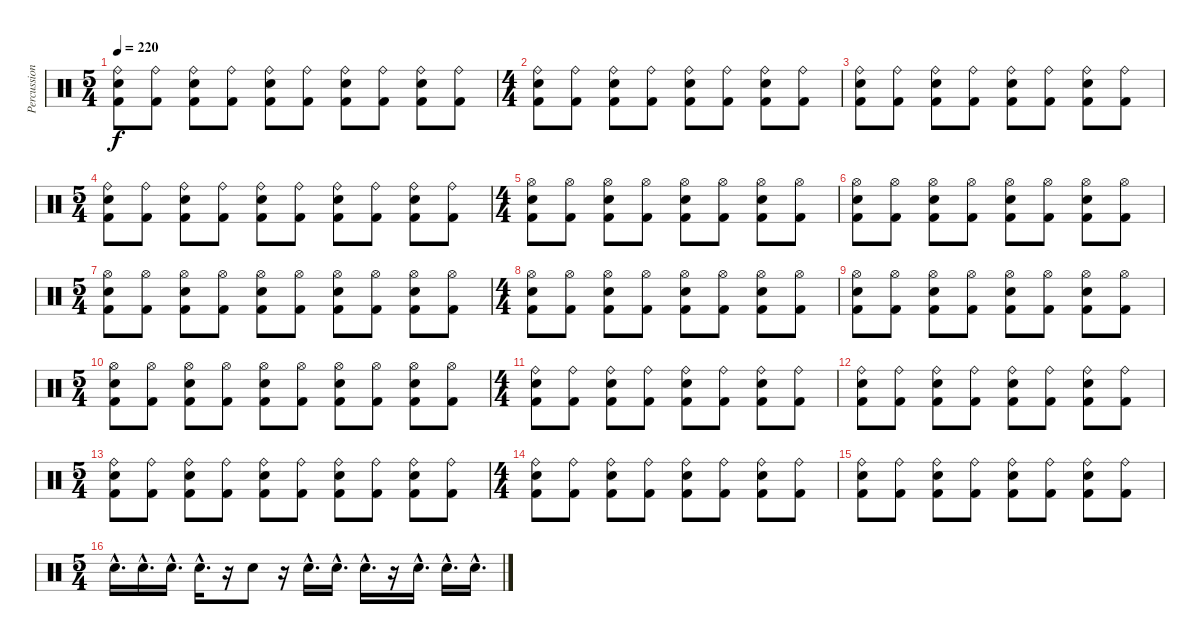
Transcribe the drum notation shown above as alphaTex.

\track ("Percussions" "Percussion") {instrument percussion}
\staff {score}
\articulation defaults
\ts (5 4)
\tempo 220
\clef neutral
\ks c
("Kick (hit) 2" "Snare (hit) 2" "Ride (bell)").8{dy f} ("Kick (hit) 2" "Ride (bell)").8 ("Kick (hit) 2" "Snare (hit) 2" "Ride (bell)").8 ("Kick (hit) 2" "Ride (bell)").8 ("Kick (hit) 2" "Snare (hit) 2" "Ride (bell)").8 ("Kick (hit) 2" "Ride (bell)").8 ("Kick (hit) 2" "Snare (hit) 2" "Ride (bell)").8 ("Kick (hit) 2" "Ride (bell)").8 ("Kick (hit) 2" "Snare (hit) 2" "Ride (bell)").8 ("Kick (hit) 2" "Ride (bell)").8 |
\ts (4 4)
("Kick (hit) 2" "Snare (hit) 2" "Ride (bell)").8 ("Kick (hit) 2" "Ride (bell)").8 ("Kick (hit) 2" "Snare (hit) 2" "Ride (bell)").8 ("Kick (hit) 2" "Ride (bell)").8 ("Kick (hit) 2" "Snare (hit) 2" "Ride (bell)").8 ("Kick (hit) 2" "Ride (bell)").8 ("Kick (hit) 2" "Snare (hit) 2" "Ride (bell)").8 ("Kick (hit) 2" "Ride (bell)").8 |
("Kick (hit) 2" "Snare (hit) 2" "Ride (bell)").8 ("Kick (hit) 2" "Ride (bell)").8 ("Kick (hit) 2" "Snare (hit) 2" "Ride (bell)").8 ("Kick (hit) 2" "Ride (bell)").8 ("Kick (hit) 2" "Snare (hit) 2" "Ride (bell)").8 ("Kick (hit) 2" "Ride (bell)").8 ("Kick (hit) 2" "Snare (hit) 2" "Ride (bell)").8 ("Kick (hit) 2" "Ride (bell)").8 |
\ts (5 4)
("Kick (hit) 2" "Snare (hit) 2" "Ride (bell)").8 ("Kick (hit) 2" "Ride (bell)").8 ("Kick (hit) 2" "Snare (hit) 2" "Ride (bell)").8 ("Kick (hit) 2" "Ride (bell)").8 ("Kick (hit) 2" "Snare (hit) 2" "Ride (bell)").8 ("Kick (hit) 2" "Ride (bell)").8 ("Kick (hit) 2" "Snare (hit) 2" "Ride (bell)").8 ("Kick (hit) 2" "Ride (bell)").8 ("Kick (hit) 2" "Snare (hit) 2" "Ride (bell)").8 ("Kick (hit) 2" "Ride (bell)").8 |
\ts (4 4)
("Kick (hit) 2" "Snare (hit) 2" "Hi-Hat (open)").8 ("Kick (hit) 2" "Hi-Hat (open)").8 ("Kick (hit) 2" "Snare (hit) 2" "Hi-Hat (open)").8 ("Kick (hit) 2" "Hi-Hat (open)").8 ("Kick (hit) 2" "Snare (hit) 2" "Hi-Hat (open)").8 ("Kick (hit) 2" "Hi-Hat (open)").8 ("Kick (hit) 2" "Snare (hit) 2" "Hi-Hat (open)").8 ("Kick (hit) 2" "Hi-Hat (open)").8 |
("Kick (hit) 2" "Snare (hit) 2" "Hi-Hat (open)").8 ("Kick (hit) 2" "Hi-Hat (open)").8 ("Kick (hit) 2" "Snare (hit) 2" "Hi-Hat (open)").8 ("Kick (hit) 2" "Hi-Hat (open)").8 ("Kick (hit) 2" "Snare (hit) 2" "Hi-Hat (open)").8 ("Kick (hit) 2" "Hi-Hat (open)").8 ("Kick (hit) 2" "Snare (hit) 2" "Hi-Hat (open)").8 ("Kick (hit) 2" "Hi-Hat (open)").8 |
\ts (5 4)
("Kick (hit) 2" "Snare (hit) 2" "Hi-Hat (open)").8 ("Kick (hit) 2" "Hi-Hat (open)").8 ("Kick (hit) 2" "Snare (hit) 2" "Hi-Hat (open)").8 ("Kick (hit) 2" "Hi-Hat (open)").8 ("Kick (hit) 2" "Snare (hit) 2" "Hi-Hat (open)").8 ("Kick (hit) 2" "Hi-Hat (open)").8 ("Kick (hit) 2" "Snare (hit) 2" "Hi-Hat (open)").8 ("Kick (hit) 2" "Hi-Hat (open)").8 ("Kick (hit) 2" "Snare (hit) 2" "Hi-Hat (open)").8 ("Kick (hit) 2" "Hi-Hat (open)").8 |
\ts (4 4)
("Kick (hit) 2" "Snare (hit) 2" "Hi-Hat (open)").8 ("Kick (hit) 2" "Hi-Hat (open)").8 ("Kick (hit) 2" "Snare (hit) 2" "Hi-Hat (open)").8 ("Kick (hit) 2" "Hi-Hat (open)").8 ("Kick (hit) 2" "Snare (hit) 2" "Hi-Hat (open)").8 ("Kick (hit) 2" "Hi-Hat (open)").8 ("Kick (hit) 2" "Snare (hit) 2" "Hi-Hat (open)").8 ("Kick (hit) 2" "Hi-Hat (open)").8 |
("Kick (hit) 2" "Snare (hit) 2" "Hi-Hat (open)").8 ("Kick (hit) 2" "Hi-Hat (open)").8 ("Kick (hit) 2" "Snare (hit) 2" "Hi-Hat (open)").8 ("Kick (hit) 2" "Hi-Hat (open)").8 ("Kick (hit) 2" "Snare (hit) 2" "Hi-Hat (open)").8 ("Kick (hit) 2" "Hi-Hat (open)").8 ("Kick (hit) 2" "Snare (hit) 2" "Hi-Hat (open)").8 ("Kick (hit) 2" "Hi-Hat (open)").8 |
\ts (5 4)
("Kick (hit) 2" "Snare (hit) 2" "Hi-Hat (open)").8 ("Kick (hit) 2" "Hi-Hat (open)").8 ("Kick (hit) 2" "Snare (hit) 2" "Hi-Hat (open)").8 ("Kick (hit) 2" "Hi-Hat (open)").8 ("Kick (hit) 2" "Snare (hit) 2" "Hi-Hat (open)").8 ("Kick (hit) 2" "Hi-Hat (open)").8 ("Kick (hit) 2" "Snare (hit) 2" "Hi-Hat (open)").8 ("Kick (hit) 2" "Hi-Hat (open)").8 ("Kick (hit) 2" "Snare (hit) 2" "Hi-Hat (open)").8 ("Kick (hit) 2" "Hi-Hat (open)").8 |
\ts (4 4)
("Kick (hit) 2" "Snare (hit) 2" "Ride (bell)").8 ("Kick (hit) 2" "Ride (bell)").8 ("Kick (hit) 2" "Snare (hit) 2" "Ride (bell)").8 ("Kick (hit) 2" "Ride (bell)").8 ("Kick (hit) 2" "Snare (hit) 2" "Ride (bell)").8 ("Kick (hit) 2" "Ride (bell)").8 ("Kick (hit) 2" "Snare (hit) 2" "Ride (bell)").8 ("Kick (hit) 2" "Ride (bell)").8 |
("Kick (hit) 2" "Snare (hit) 2" "Ride (bell)").8 ("Kick (hit) 2" "Ride (bell)").8 ("Kick (hit) 2" "Snare (hit) 2" "Ride (bell)").8 ("Kick (hit) 2" "Ride (bell)").8 ("Kick (hit) 2" "Snare (hit) 2" "Ride (bell)").8 ("Kick (hit) 2" "Ride (bell)").8 ("Kick (hit) 2" "Snare (hit) 2" "Ride (bell)").8 ("Kick (hit) 2" "Ride (bell)").8 |
\ts (5 4)
("Kick (hit) 2" "Snare (hit) 2" "Ride (bell)").8 ("Kick (hit) 2" "Ride (bell)").8 ("Kick (hit) 2" "Snare (hit) 2" "Ride (bell)").8 ("Kick (hit) 2" "Ride (bell)").8 ("Kick (hit) 2" "Snare (hit) 2" "Ride (bell)").8 ("Kick (hit) 2" "Ride (bell)").8 ("Kick (hit) 2" "Snare (hit) 2" "Ride (bell)").8 ("Kick (hit) 2" "Ride (bell)").8 ("Kick (hit) 2" "Snare (hit) 2" "Ride (bell)").8 ("Kick (hit) 2" "Ride (bell)").8 |
\ts (4 4)
("Kick (hit) 2" "Snare (hit) 2" "Ride (bell)").8 ("Kick (hit) 2" "Ride (bell)").8 ("Kick (hit) 2" "Snare (hit) 2" "Ride (bell)").8 ("Kick (hit) 2" "Ride (bell)").8 ("Kick (hit) 2" "Snare (hit) 2" "Ride (bell)").8 ("Kick (hit) 2" "Ride (bell)").8 ("Kick (hit) 2" "Snare (hit) 2" "Ride (bell)").8 ("Kick (hit) 2" "Ride (bell)").8 |
("Kick (hit) 2" "Snare (hit) 2" "Ride (bell)").8 ("Kick (hit) 2" "Ride (bell)").8 ("Kick (hit) 2" "Snare (hit) 2" "Ride (bell)").8 ("Kick (hit) 2" "Ride (bell)").8 ("Kick (hit) 2" "Snare (hit) 2" "Ride (bell)").8 ("Kick (hit) 2" "Ride (bell)").8 ("Kick (hit) 2" "Snare (hit) 2" "Ride (bell)").8 ("Kick (hit) 2" "Ride (bell)").8 |
\ts (5 4)
"Snare (hit) 2"{hac}.16{d} "Snare (hit) 2"{hac}.16{d} "Snare (hit) 2"{hac}.16{d} "Snare (hit) 2"{hac}.16{d} r.16 "Snare (hit) 2".8 r.16 "Snare (hit) 2"{hac}.16{d} "Snare (hit) 2"{hac}.16{d} "Snare (hit) 2"{hac}.16{d} r.16 "Snare (hit) 2"{hac}.16{d} "Snare (hit) 2"{hac}.16{d} "Snare (hit) 2"{hac}.16{d}
